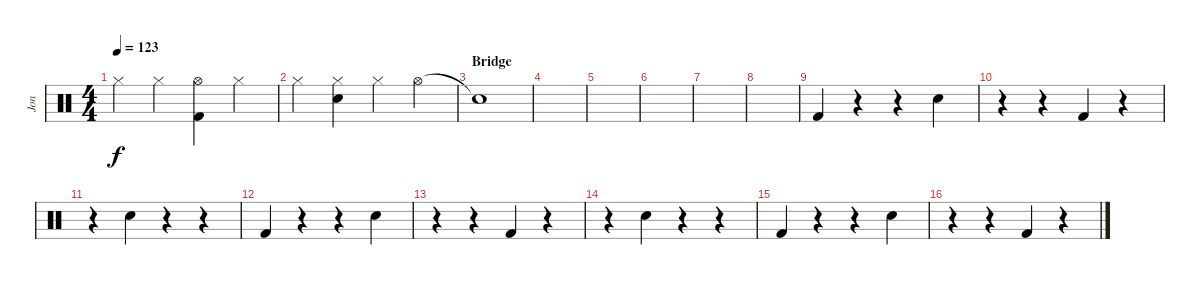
\track ("Jon" "Jon") {instrument percussion}
\staff {score}
\articulation defaults
\ts (4 4)
\tempo 123
\clef neutral
\ks c "Hi-Hat (closed)".4{dy f} "Hi-Hat (closed)".4
("Hi-Hat (open)" "Kick (hit) 2").4 "Hi-Hat (closed)".4 |
"Hi-Hat (closed)".4 ("Hi-Hat (closed)" "Snare (hit) 2").4 "Hi-Hat (closed)".4 "Hi-Hat (open)".4 |
\section ("" "Bridge")
"Snare (hit)"{t}.1 |
|
|
|
|
|
"Kick (hit) 2".4 r.4 r.4 "Snare (hit) 2".4 |
r.4 r.4 "Kick (hit) 2".4 r.4 |
r.4 "Snare (hit) 2".4 r.4 r.4 |
"Kick (hit) 2".4 r.4 r.4 "Snare (hit) 2".4 |
r.4 r.4 "Kick (hit) 2".4 r.4 |
r.4 "Snare (hit) 2".4 r.4 r.4 |
"Kick (hit) 2".4 r.4 r.4 "Snare (hit) 2".4 |
r.4 r.4 "Kick (hit) 2".4 r.4
